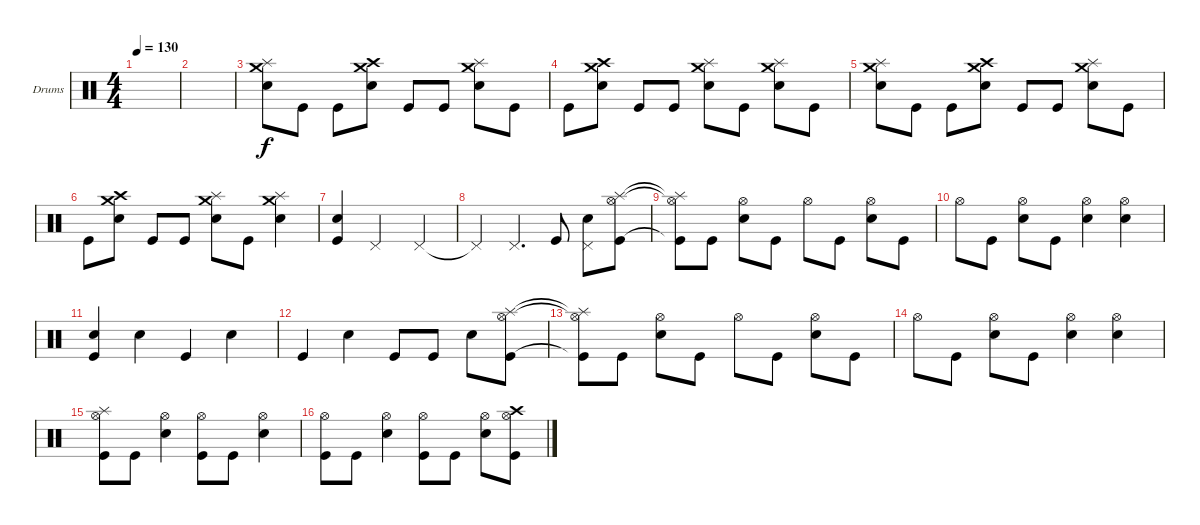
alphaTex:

\defaultSystemsLayout 4
\bracketExtendMode groupsimilarinstruments
\firstSystemTrackNameOrientation horizontal
\otherSystemsTrackNameOrientation horizontal
\track ("Drumkit" "Drums") {instrument percussion}
\staff {score}
\articulation defaults
\ts (4 4)
\tempo 130
\clef neutral
\ks c
|
|
("Snare (hit) 2" "Splash (hit)" "Crash medium (hit)").8 "Kick (hit)".8 "Kick (hit)".8 ("Snare (hit) 2" "Crash high (hit)" "Crash medium (hit)").8 "Kick (hit)".8 "Kick (hit)".8 ("Snare (hit) 2" "Splash (hit)" "Crash medium (hit)").8 "Kick (hit)".8 |
"Kick (hit)".8 ("Snare (hit) 2" "Crash high (hit)" "Crash medium (hit)").8 "Kick (hit)".8 "Kick (hit)".8 ("Snare (hit) 2" "Splash (hit)" "Crash medium (hit)").8 "Kick (hit)".8 ("Snare (hit) 2" "Splash (hit)" "Crash medium (hit)").8 "Kick (hit)".8 |
("Snare (hit) 2" "Splash (hit)" "Crash medium (hit)").8 "Kick (hit)".8 "Kick (hit)".8 ("Snare (hit) 2" "Crash high (hit)" "Crash medium (hit)").8 "Kick (hit)".8 "Kick (hit)".8 ("Snare (hit) 2" "Splash (hit)" "Crash medium (hit)").8 "Kick (hit)".8 |
"Kick (hit)".8 ("Snare (hit) 2" "Crash high (hit)" "Crash medium (hit)").8 "Kick (hit)".8 "Kick (hit)".8 ("Snare (hit) 2" "Splash (hit)" "Crash medium (hit)").8 "Kick (hit)".8 ("Snare (hit) 2" "Splash (hit)" "Crash medium (hit)").4 |
("Snare (hit) 2" "Kick (hit)").4 "Pedal Hi-Hat (hit)".2 "Pedal Hi-Hat (hit)".4 |
"Pedal Hi-Hat (hit)"{t}.4 "Pedal Hi-Hat (hit)".4{d} "Kick (hit)".8 ("Snare (hit) 2" "Pedal Hi-Hat (hit)").8 ("Kick (hit)" "Splash (hit)" "Hi-Hat (open)").8 |
("Kick (hit)"{t} "Splash (hit)"{t} "Hi-Hat (open)"{t}).8 "Kick (hit)".8 ("Snare (hit) 2" "Hi-Hat (open)").8 "Kick (hit)".8 "Hi-Hat (open)".8 "Kick (hit)".8 ("Snare (hit) 2" "Hi-Hat (open)").8 "Kick (hit)".8 |
"Hi-Hat (open)".8 "Kick (hit)".8 ("Hi-Hat (open)" "Snare (hit) 2").8 "Kick (hit)".8 ("Snare (hit) 2" "Hi-Hat (open)").4 ("Snare (hit) 2" "Hi-Hat (open)").4 |
("Snare (hit) 2" "Kick (hit)").4 "Snare (hit) 2".4 "Kick (hit)".4 "Snare (hit) 2".4 |
"Kick (hit)".4 "Snare (hit) 2".4 "Kick (hit)".8 "Kick (hit)".8 "Snare (hit) 2".8 ("Kick (hit)" "Splash (hit)" "Hi-Hat (open)").8 |
("Kick (hit)"{t} "Splash (hit)"{t} "Hi-Hat (open)"{t}).8 "Kick (hit)".8 ("Snare (hit) 2" "Hi-Hat (open)").8 "Kick (hit)".8 "Hi-Hat (open)".8 "Kick (hit)".8 ("Snare (hit) 2" "Hi-Hat (open)").8 "Kick (hit)".8 |
"Hi-Hat (open)".8 "Kick (hit)".8 ("Hi-Hat (open)" "Snare (hit) 2").8 "Kick (hit)".8 ("Snare (hit) 2" "Hi-Hat (open)").4 ("Snare (hit) 2" "Hi-Hat (open)").4 |
("Splash (hit)" "Hi-Hat (open)" "Kick (hit)").8 "Kick (hit)".8 ("Snare (hit) 2" "Hi-Hat (open)").4 ("Kick (hit)" "Hi-Hat (open)").8 "Kick (hit)".8 ("Snare (hit) 2" "Hi-Hat (open)").4 |
("Hi-Hat (open)" "Kick (hit)").8 "Kick (hit)".8 ("Snare (hit) 2" "Hi-Hat (open)").4 ("Kick (hit)" "Hi-Hat (open)").8 "Kick (hit)".8 ("Snare (hit) 2" "Hi-Hat (open)").8 ("Kick (hit)" "Crash high (hit)" "Hi-Hat (open)").8
